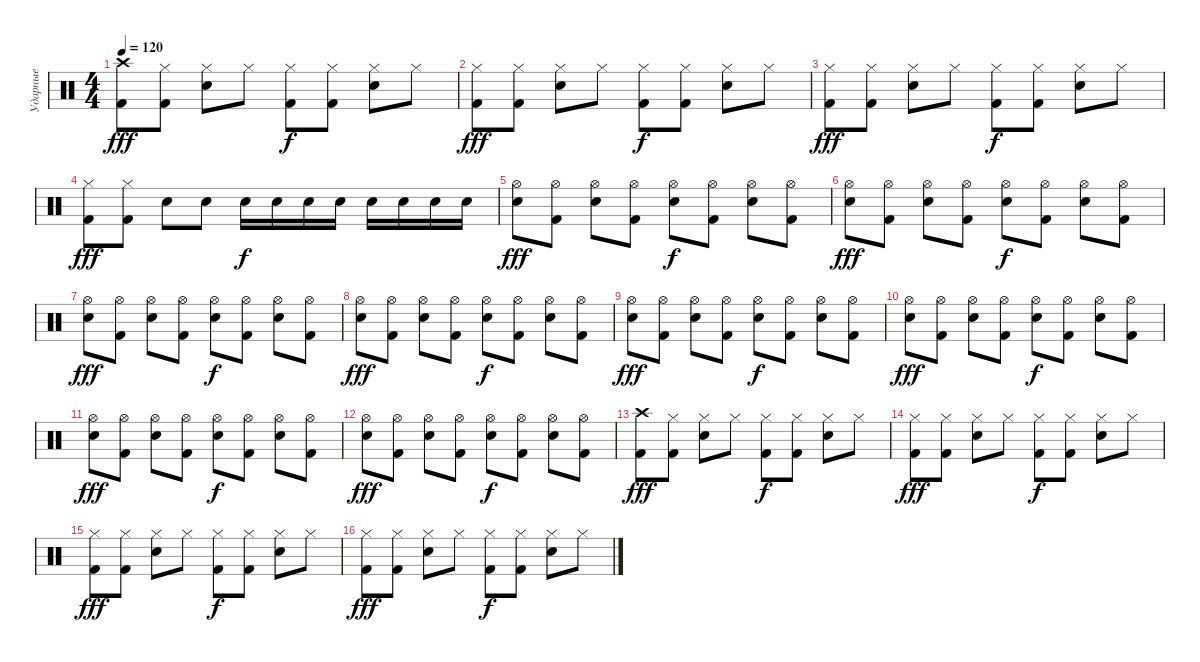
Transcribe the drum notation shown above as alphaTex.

\track ("Ударные" "Ударные") {instrument percussion}
\staff {score}
\articulation defaults
\ts (4 4)
\tempo 120
\clef neutral
\ks c
("Crash high (hit)" "Kick (hit) 2").8{dy fff} ("Hi-Hat (closed)" "Kick (hit) 2").8 ("Hi-Hat (closed)" "Snare (hit) 2").8 "Hi-Hat (closed)".8 ("Hi-Hat (closed)" "Kick (hit) 2").8{dy f} ("Hi-Hat (closed)" "Kick (hit) 2").8 ("Hi-Hat (closed)" "Snare (hit) 2").8 "Hi-Hat (closed)".8 |
("Hi-Hat (closed)" "Kick (hit) 2").8{dy fff} ("Hi-Hat (closed)" "Kick (hit) 2").8 ("Hi-Hat (closed)" "Snare (hit) 2").8 "Hi-Hat (closed)".8 ("Hi-Hat (closed)" "Kick (hit) 2").8{dy f} ("Hi-Hat (closed)" "Kick (hit) 2").8 ("Hi-Hat (closed)" "Snare (hit) 2").8 "Hi-Hat (closed)".8 |
("Hi-Hat (closed)" "Kick (hit) 2").8{dy fff} ("Hi-Hat (closed)" "Kick (hit) 2").8 ("Hi-Hat (closed)" "Snare (hit) 2").8 "Hi-Hat (closed)".8 ("Hi-Hat (closed)" "Kick (hit) 2").8{dy f} ("Hi-Hat (closed)" "Kick (hit) 2").8 ("Hi-Hat (closed)" "Snare (hit) 2").8 "Hi-Hat (closed)".8 |
("Hi-Hat (closed)" "Kick (hit) 2").8{dy fff} ("Hi-Hat (closed)" "Kick (hit) 2").8 "Snare (hit) 2".8 "Snare (hit) 2".8 "Snare (hit) 2".16{dy f} "Snare (hit) 2".16 "Snare (hit) 2".16 "Snare (hit) 2".16 "Snare (hit) 2".16 "Snare (hit) 2".16 "Snare (hit) 2".16 "Snare (hit) 2".16 |
("Hi-Hat (open)" "Snare (hit) 2").8{dy fff} ("Hi-Hat (open)" "Kick (hit) 2").8 ("Hi-Hat (open)" "Snare (hit) 2").8 ("Hi-Hat (open)" "Kick (hit) 2").8 ("Hi-Hat (open)" "Snare (hit) 2").8{dy f} ("Hi-Hat (open)" "Kick (hit) 2").8 ("Hi-Hat (open)" "Snare (hit) 2").8 ("Hi-Hat (open)" "Kick (hit) 2").8 |
("Hi-Hat (open)" "Snare (hit) 2").8{dy fff} ("Hi-Hat (open)" "Kick (hit) 2").8 ("Hi-Hat (open)" "Snare (hit) 2").8 ("Hi-Hat (open)" "Kick (hit) 2").8 ("Hi-Hat (open)" "Snare (hit) 2").8{dy f} ("Hi-Hat (open)" "Kick (hit) 2").8 ("Hi-Hat (open)" "Snare (hit) 2").8 ("Hi-Hat (open)" "Kick (hit) 2").8 |
("Hi-Hat (open)" "Snare (hit) 2").8{dy fff} ("Hi-Hat (open)" "Kick (hit) 2").8 ("Hi-Hat (open)" "Snare (hit) 2").8 ("Hi-Hat (open)" "Kick (hit) 2").8 ("Hi-Hat (open)" "Snare (hit) 2").8{dy f} ("Hi-Hat (open)" "Kick (hit) 2").8 ("Hi-Hat (open)" "Snare (hit) 2").8 ("Hi-Hat (open)" "Kick (hit) 2").8 |
("Hi-Hat (open)" "Snare (hit) 2").8{dy fff} ("Hi-Hat (open)" "Kick (hit) 2").8 ("Hi-Hat (open)" "Snare (hit) 2").8 ("Hi-Hat (open)" "Kick (hit) 2").8 ("Hi-Hat (open)" "Snare (hit) 2").8{dy f} ("Hi-Hat (open)" "Kick (hit) 2").8 ("Hi-Hat (open)" "Snare (hit) 2").8 ("Hi-Hat (open)" "Kick (hit) 2").8 |
("Hi-Hat (open)" "Snare (hit) 2").8{dy fff} ("Hi-Hat (open)" "Kick (hit) 2").8 ("Hi-Hat (open)" "Snare (hit) 2").8 ("Hi-Hat (open)" "Kick (hit) 2").8 ("Hi-Hat (open)" "Snare (hit) 2").8{dy f} ("Hi-Hat (open)" "Kick (hit) 2").8 ("Hi-Hat (open)" "Snare (hit) 2").8 ("Hi-Hat (open)" "Kick (hit) 2").8 |
("Hi-Hat (open)" "Snare (hit) 2").8{dy fff} ("Hi-Hat (open)" "Kick (hit) 2").8 ("Hi-Hat (open)" "Snare (hit) 2").8 ("Hi-Hat (open)" "Kick (hit) 2").8 ("Hi-Hat (open)" "Snare (hit) 2").8{dy f} ("Hi-Hat (open)" "Kick (hit) 2").8 ("Hi-Hat (open)" "Snare (hit) 2").8 ("Hi-Hat (open)" "Kick (hit) 2").8 |
("Hi-Hat (open)" "Snare (hit) 2").8{dy fff} ("Hi-Hat (open)" "Kick (hit) 2").8 ("Hi-Hat (open)" "Snare (hit) 2").8 ("Hi-Hat (open)" "Kick (hit) 2").8 ("Hi-Hat (open)" "Snare (hit) 2").8{dy f} ("Hi-Hat (open)" "Kick (hit) 2").8 ("Hi-Hat (open)" "Snare (hit) 2").8 ("Hi-Hat (open)" "Kick (hit) 2").8 |
("Hi-Hat (open)" "Snare (hit) 2").8{dy fff} ("Hi-Hat (open)" "Kick (hit) 2").8 ("Hi-Hat (open)" "Snare (hit) 2").8 ("Hi-Hat (open)" "Kick (hit) 2").8 ("Hi-Hat (open)" "Snare (hit) 2").8{dy f} ("Hi-Hat (open)" "Kick (hit) 2").8 ("Hi-Hat (open)" "Snare (hit) 2").8 ("Hi-Hat (open)" "Kick (hit) 2").8 |
("Crash high (hit)" "Kick (hit) 2").8{dy fff} ("Hi-Hat (closed)" "Kick (hit) 2").8 ("Hi-Hat (closed)" "Snare (hit) 2").8 "Hi-Hat (closed)".8 ("Hi-Hat (closed)" "Kick (hit) 2").8{dy f} ("Hi-Hat (closed)" "Kick (hit) 2").8 ("Hi-Hat (closed)" "Snare (hit) 2").8 "Hi-Hat (closed)".8 |
("Hi-Hat (closed)" "Kick (hit) 2").8{dy fff} ("Hi-Hat (closed)" "Kick (hit) 2").8 ("Hi-Hat (closed)" "Snare (hit) 2").8 "Hi-Hat (closed)".8 ("Hi-Hat (closed)" "Kick (hit) 2").8{dy f} ("Hi-Hat (closed)" "Kick (hit) 2").8 ("Hi-Hat (closed)" "Snare (hit) 2").8 "Hi-Hat (closed)".8 |
("Hi-Hat (closed)" "Kick (hit) 2").8{dy fff} ("Hi-Hat (closed)" "Kick (hit) 2").8 ("Hi-Hat (closed)" "Snare (hit) 2").8 "Hi-Hat (closed)".8 ("Hi-Hat (closed)" "Kick (hit) 2").8{dy f} ("Hi-Hat (closed)" "Kick (hit) 2").8 ("Hi-Hat (closed)" "Snare (hit) 2").8 "Hi-Hat (closed)".8 |
("Hi-Hat (closed)" "Kick (hit) 2").8{dy fff} ("Hi-Hat (closed)" "Kick (hit) 2").8 ("Hi-Hat (closed)" "Snare (hit) 2").8 "Hi-Hat (closed)".8 ("Hi-Hat (closed)" "Kick (hit) 2").8{dy f} ("Hi-Hat (closed)" "Kick (hit) 2").8 ("Hi-Hat (closed)" "Snare (hit) 2").8 "Hi-Hat (closed)".8
